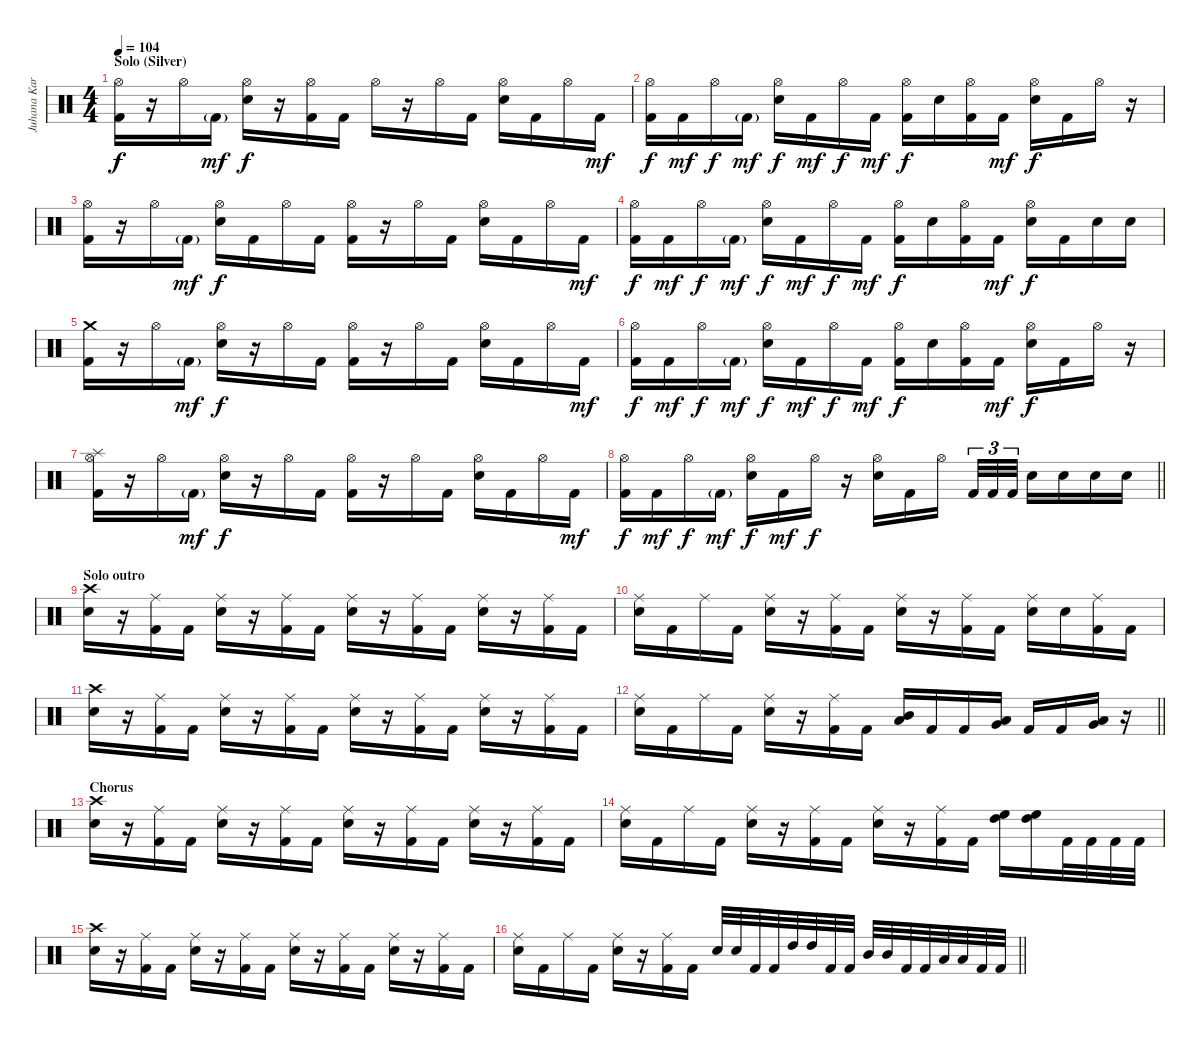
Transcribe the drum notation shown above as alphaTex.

\track ("Juhana Karlsson" "Juhana Kar") {instrument percussion}
\staff {score}
\articulation defaults
\ts (4 4)
\section ("" "Solo (Silver)")
\tempo 104
\clef neutral
\ks c
("Hi-Hat (open)" "Kick (hit) 2").16{dy f} r.16 "Hi-Hat (open)".16 "Kick (hit) 2"{g}.16{dy mf} ("Hi-Hat (open)" "Electric Snare (hit)").16{dy f} r.16 ("Hi-Hat (open)" "Kick (hit) 2").16 "Kick (hit) 2".16 "Hi-Hat (open)".16 r.16 "Hi-Hat (open)".16 "Kick (hit) 2".16 ("Hi-Hat (open)" "Electric Snare (hit)").16 "Kick (hit) 2".16 "Hi-Hat (open)".16 "Kick (hit) 2".16{dy mf} |
("Hi-Hat (open)" "Kick (hit) 2").16{dy f} "Kick (hit) 2".16{dy mf} "Hi-Hat (open)".16{dy f} "Kick (hit) 2"{g}.16{dy mf} ("Hi-Hat (open)" "Electric Snare (hit)").16{dy f} "Kick (hit) 2".16{dy mf} "Hi-Hat (open)".16{dy f} "Kick (hit) 2".16{dy mf} ("Hi-Hat (open)" "Kick (hit) 2").16{dy f} "Electric Snare (hit)".16 ("Hi-Hat (open)" "Kick (hit) 2").16 "Kick (hit) 2".16{dy mf} ("Hi-Hat (open)" "Electric Snare (hit)").16{dy f} "Kick (hit) 2".16 "Hi-Hat (open)".16 r.16 |
("Hi-Hat (open)" "Kick (hit) 2").16 r.16 "Hi-Hat (open)".16 "Kick (hit) 2"{g}.16{dy mf} ("Hi-Hat (open)" "Electric Snare (hit)").16{dy f} "Kick (hit) 2".16 "Hi-Hat (open)".16 "Kick (hit) 2".16 ("Hi-Hat (open)" "Kick (hit) 2").16 r.16 "Hi-Hat (open)".16 "Kick (hit) 2".16 ("Hi-Hat (open)" "Electric Snare (hit)").16 "Kick (hit) 2".16 "Hi-Hat (open)".16 "Kick (hit) 2".16{dy mf} |
("Hi-Hat (open)" "Kick (hit) 2").16{dy f} "Kick (hit) 2".16{dy mf} "Hi-Hat (open)".16{dy f} "Kick (hit) 2"{g}.16{dy mf} ("Hi-Hat (open)" "Electric Snare (hit)").16{dy f} "Kick (hit) 2".16{dy mf} "Hi-Hat (open)".16{dy f} "Kick (hit) 2".16{dy mf} ("Hi-Hat (open)" "Kick (hit) 2").16{dy f} "Electric Snare (hit)".16 ("Hi-Hat (open)" "Kick (hit) 2").16 "Kick (hit) 2".16{dy mf} ("Hi-Hat (open)" "Electric Snare (hit)").16{dy f} "Kick (hit) 2".16 "Electric Snare (hit)".16 "Electric Snare (hit)".16 |
("Crash medium (hit)" "Kick (hit) 2").16 r.16 "Hi-Hat (open)".16 "Kick (hit) 2"{g}.16{dy mf} ("Hi-Hat (open)" "Electric Snare (hit)").16{dy f} r.16 "Hi-Hat (open)".16 "Kick (hit) 2".16 ("Hi-Hat (open)" "Kick (hit) 2").16 r.16 "Hi-Hat (open)".16 "Kick (hit) 2".16 ("Hi-Hat (open)" "Electric Snare (hit)").16 "Kick (hit) 2".16 "Hi-Hat (open)".16 "Kick (hit) 2".16{dy mf} |
("Hi-Hat (open)" "Kick (hit) 2").16{dy f} "Kick (hit) 2".16{dy mf} "Hi-Hat (open)".16{dy f} "Kick (hit) 2"{g}.16{dy mf} ("Hi-Hat (open)" "Electric Snare (hit)").16{dy f} "Kick (hit) 2".16{dy mf} "Hi-Hat (open)".16{dy f} "Kick (hit) 2".16{dy mf} ("Hi-Hat (open)" "Kick (hit) 2").16{dy f} "Electric Snare (hit)".16 ("Hi-Hat (open)" "Kick (hit) 2").16 "Kick (hit) 2".16{dy mf} ("Hi-Hat (open)" "Electric Snare (hit)").16{dy f} "Kick (hit) 2".16 "Hi-Hat (open)".16 r.16 |
("Splash (hit)" "Hi-Hat (open)" "Kick (hit) 2").16 r.16 "Hi-Hat (open)".16 "Kick (hit) 2"{g}.16{dy mf} ("Hi-Hat (open)" "Electric Snare (hit)").16{dy f} r.16 "Hi-Hat (open)".16 "Kick (hit) 2".16 ("Hi-Hat (open)" "Kick (hit) 2").16 r.16 "Hi-Hat (open)".16 "Kick (hit) 2".16 ("Hi-Hat (open)" "Electric Snare (hit)").16 "Kick (hit) 2".16 "Hi-Hat (open)".16 "Kick (hit) 2".16{dy mf} |
\barLineRight lightlight
("Hi-Hat (open)" "Kick (hit) 2").16{dy f} "Kick (hit) 2".16{dy mf} "Hi-Hat (open)".16{dy f} "Kick (hit) 2"{g}.16{dy mf} ("Hi-Hat (open)" "Electric Snare (hit)").16{dy f} "Kick (hit) 2".16{dy mf} "Hi-Hat (open)".16{dy f} r.16 ("Hi-Hat (open)" "Electric Snare (hit)").16 "Kick (hit) 2".16 "Hi-Hat (open)".16{beam splitsecondary} "Kick (hit) 2".32{tu (3 2)} "Kick (hit) 2".32{tu (3 2)} "Kick (hit) 2".32{tu (3 2)} "Electric Snare (hit)".16 "Electric Snare (hit)".16 "Electric Snare (hit)".16 "Electric Snare (hit)".16 |
\section ("" "Solo outro")
("Crash high (hit)" "Electric Snare (hit)").16 r.16 ("Ride (middle)" "Kick (hit) 2").16 "Kick (hit) 2".16 ("Ride (middle)" "Electric Snare (hit)").16 r.16 ("Ride (middle)" "Kick (hit) 2").16 "Kick (hit) 2".16 ("Ride (middle)" "Electric Snare (hit)").16 r.16 ("Ride (middle)" "Kick (hit) 2").16 "Kick (hit) 2".16 ("Ride (middle)" "Electric Snare (hit)").16 r.16 ("Ride (middle)" "Kick (hit) 2").16 "Kick (hit) 2".16 |
("Ride (middle)" "Electric Snare (hit)").16 "Kick (hit) 2".16 "Ride (middle)".16 "Kick (hit) 2".16 ("Ride (middle)" "Electric Snare (hit)").16 r.16 ("Ride (middle)" "Kick (hit) 2").16 "Kick (hit) 2".16 ("Ride (middle)" "Electric Snare (hit)").16 r.16 ("Ride (middle)" "Kick (hit) 2").16 "Kick (hit) 2".16 ("Ride (middle)" "Electric Snare (hit)").16 "Electric Snare (hit)".16 ("Ride (middle)" "Kick (hit) 2").16 "Kick (hit) 2".16 |
("Crash high (hit)" "Electric Snare (hit)").16 r.16 ("Ride (middle)" "Kick (hit) 2").16 "Kick (hit) 2".16 ("Ride (middle)" "Electric Snare (hit)").16 r.16 ("Ride (middle)" "Kick (hit) 2").16 "Kick (hit) 2".16 ("Ride (middle)" "Electric Snare (hit)").16 r.16 ("Ride (middle)" "Kick (hit) 2").16 "Kick (hit) 2".16 ("Ride (middle)" "Electric Snare (hit)").16 r.16 ("Ride (middle)" "Kick (hit) 2").16 "Kick (hit) 2".16 |
\barLineRight lightlight
("Ride (middle)" "Electric Snare (hit)").16 "Kick (hit) 2".16 "Ride (middle)".16 "Kick (hit) 2".16 ("Ride (middle)" "Electric Snare (hit)").16 r.16 ("Ride (middle)" "Kick (hit) 2").16 "Kick (hit) 2".16 ("Mid Tom (hit)" "Low Tom (hit)").16 "Kick (hit) 2".16 "Kick (hit) 2".16 ("Low Tom (hit)" "Very Low Tom (hit)").16 "Kick (hit) 2".16 "Kick (hit) 2".16 ("Very Low Tom (hit)" "Low Floor Tom (hit)").16 r.16 |
\section ("" "Chorus")
("Crash high (hit)" "Electric Snare (hit)").16 r.16 ("Ride (middle)" "Kick (hit) 2").16 "Kick (hit) 2".16 ("Ride (middle)" "Electric Snare (hit)").16 r.16 ("Ride (middle)" "Kick (hit) 2").16 "Kick (hit) 2".16 ("Ride (middle)" "Electric Snare (hit)").16 r.16 ("Ride (middle)" "Kick (hit) 2").16 "Kick (hit) 2".16 ("Ride (middle)" "Electric Snare (hit)").16 r.16 ("Ride (middle)" "Kick (hit) 2").16 "Kick (hit) 2".16 |
("Ride (middle)" "Electric Snare (hit)").16 "Kick (hit) 2".16 "Ride (middle)".16 "Kick (hit) 2".16 ("Ride (middle)" "Electric Snare (hit)").16 r.16 ("Ride (middle)" "Kick (hit) 2").16 "Kick (hit) 2".16 ("Ride (middle)" "Electric Snare (hit)").16 r.16 ("Ride (middle)" "Kick (hit) 2").16 "Kick (hit) 2".16 ("High Floor Tom (hit)" "High Tom (hit)").16 ("High Floor Tom (hit)" "High Tom (hit)").16 "Kick (hit) 2".32 "Kick (hit) 2".32 "Kick (hit) 2".32 "Kick (hit) 2".32 |
("Crash high (hit)" "Electric Snare (hit)").16 r.16 ("Ride (middle)" "Kick (hit) 2").16 "Kick (hit) 2".16 ("Ride (middle)" "Electric Snare (hit)").16 r.16 ("Ride (middle)" "Kick (hit) 2").16 "Kick (hit) 2".16 ("Ride (middle)" "Electric Snare (hit)").16 r.16 ("Ride (middle)" "Kick (hit) 2").16 "Kick (hit) 2".16 ("Ride (middle)" "Electric Snare (hit)").16 r.16 ("Ride (middle)" "Kick (hit) 2").16 "Kick (hit) 2".16 |
\barLineRight lightlight
("Ride (middle)" "Electric Snare (hit)").16 "Kick (hit) 2".16 "Ride (middle)".16 "Kick (hit) 2".16 ("Ride (middle)" "Electric Snare (hit)").16 r.16 ("Ride (middle)" "Kick (hit) 2").16 "Kick (hit) 2".16 "Electric Snare (hit)".32 "Electric Snare (hit)".32 "Kick (hit) 2".32 "Kick (hit) 2".32 "High Tom (hit)".32 "High Tom (hit)".32 "Kick (hit) 2".32 "Kick (hit) 2".32 "Mid Tom (hit)".32 "Mid Tom (hit)".32 "Kick (hit) 2".32 "Kick (hit) 2".32 "Low Tom (hit)".32 "Low Tom (hit)".32 "Kick (hit) 2".32 "Kick (hit) 2".32
